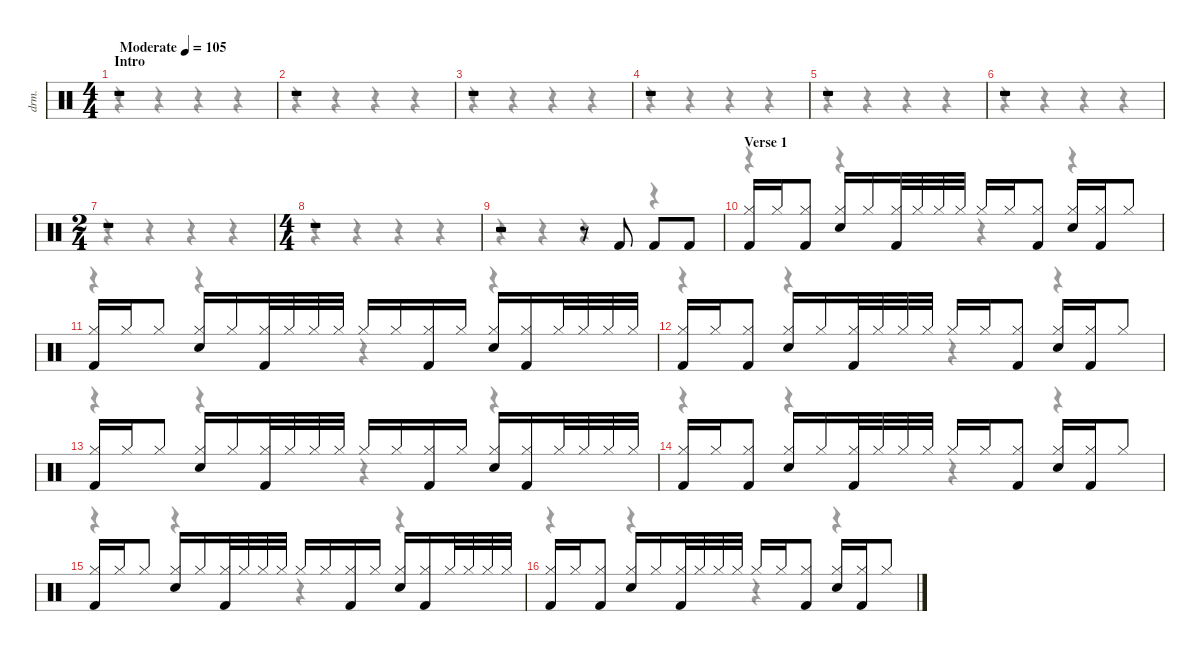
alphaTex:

\defaultSystemsLayout 4
\hideDynamics
\bracketExtendMode nobrackets
\otherSystemsTrackNameOrientation horizontal
\track ("Drums" "drm.") {instrument percussion}
\staff {score}
\articulation defaults
\voice
\ts (4 4)
\beaming (8 2 2 2 2)
\section ("" "Intro")
\tempo (105 "Moderate")
\clef neutral
\ks c
r.1{dy fff} |
r.1 |
r.1 |
r.1 |
r.1 |
r.1 |
\ts (2 4)
\beaming (8 2 2)
r.1 |
\ts (4 4)
\beaming (8 2 2 2 2)
r.1 |
r.2 r.8 "Kick (hit) 2".8 "Kick (hit) 2".8 "Kick (hit) 2".8 |
\section ("" "Verse 1")
("Hi-Hat (closed)" "Kick (hit) 2").16{dy mp} "Hi-Hat (closed)".16 ("Hi-Hat (closed)" "Kick (hit) 2").8 ("Hi-Hat (closed)" "Snare (hit) 2").16 "Hi-Hat (closed)".16 ("Hi-Hat (closed)" "Kick (hit) 2").32 "Hi-Hat (closed)".32 "Hi-Hat (closed)".32 "Hi-Hat (closed)".32 "Hi-Hat (closed)".16 "Hi-Hat (closed)".16 ("Hi-Hat (closed)" "Kick (hit) 2").8 ("Hi-Hat (closed)" "Snare (hit) 2").16 ("Hi-Hat (closed)" "Kick (hit) 2").16 "Hi-Hat (closed)".8 |
("Hi-Hat (closed)" "Kick (hit) 2").16 "Hi-Hat (closed)".16 "Hi-Hat (closed)".8 ("Hi-Hat (closed)" "Snare (hit) 2").16 "Hi-Hat (closed)".16 ("Hi-Hat (closed)" "Kick (hit) 2").32 "Hi-Hat (closed)".32 "Hi-Hat (closed)".32 "Hi-Hat (closed)".32 "Hi-Hat (closed)".16 "Hi-Hat (closed)".16 ("Hi-Hat (closed)" "Kick (hit) 2").16 "Hi-Hat (closed)".16 ("Hi-Hat (closed)" "Snare (hit) 2").16 ("Hi-Hat (closed)" "Kick (hit) 2").16 "Hi-Hat (closed)".32 "Hi-Hat (closed)".32 "Hi-Hat (closed)".32 "Hi-Hat (closed)".32 |
("Hi-Hat (closed)" "Kick (hit) 2").16 "Hi-Hat (closed)".16 ("Hi-Hat (closed)" "Kick (hit) 2").8 ("Hi-Hat (closed)" "Snare (hit) 2").16 "Hi-Hat (closed)".16 ("Hi-Hat (closed)" "Kick (hit) 2").32 "Hi-Hat (closed)".32 "Hi-Hat (closed)".32 "Hi-Hat (closed)".32 "Hi-Hat (closed)".16 "Hi-Hat (closed)".16 ("Hi-Hat (closed)" "Kick (hit) 2").8 ("Hi-Hat (closed)" "Snare (hit) 2").16 ("Hi-Hat (closed)" "Kick (hit) 2").16 "Hi-Hat (closed)".8 |
("Hi-Hat (closed)" "Kick (hit) 2").16 "Hi-Hat (closed)".16 "Hi-Hat (closed)".8 ("Hi-Hat (closed)" "Snare (hit) 2").16 "Hi-Hat (closed)".16 ("Hi-Hat (closed)" "Kick (hit) 2").32 "Hi-Hat (closed)".32 "Hi-Hat (closed)".32 "Hi-Hat (closed)".32 "Hi-Hat (closed)".16 "Hi-Hat (closed)".16 ("Hi-Hat (closed)" "Kick (hit) 2").16 "Hi-Hat (closed)".16 ("Hi-Hat (closed)" "Snare (hit) 2").16 ("Hi-Hat (closed)" "Kick (hit) 2").16 "Hi-Hat (closed)".32 "Hi-Hat (closed)".32 "Hi-Hat (closed)".32 "Hi-Hat (closed)".32 |
("Hi-Hat (closed)" "Kick (hit) 2").16 "Hi-Hat (closed)".16 ("Hi-Hat (closed)" "Kick (hit) 2").8 ("Hi-Hat (closed)" "Snare (hit) 2").16 "Hi-Hat (closed)".16 ("Hi-Hat (closed)" "Kick (hit) 2").32 "Hi-Hat (closed)".32 "Hi-Hat (closed)".32 "Hi-Hat (closed)".32 "Hi-Hat (closed)".16 "Hi-Hat (closed)".16 ("Hi-Hat (closed)" "Kick (hit) 2").8 ("Hi-Hat (closed)" "Snare (hit) 2").16 ("Hi-Hat (closed)" "Kick (hit) 2").16 "Hi-Hat (closed)".8 |
("Hi-Hat (closed)" "Kick (hit) 2").16 "Hi-Hat (closed)".16 "Hi-Hat (closed)".8 ("Hi-Hat (closed)" "Snare (hit) 2").16 "Hi-Hat (closed)".16 ("Hi-Hat (closed)" "Kick (hit) 2").32 "Hi-Hat (closed)".32 "Hi-Hat (closed)".32 "Hi-Hat (closed)".32 "Hi-Hat (closed)".16 "Hi-Hat (closed)".16 ("Hi-Hat (closed)" "Kick (hit) 2").16 "Hi-Hat (closed)".16 ("Hi-Hat (closed)" "Snare (hit) 2").16 ("Hi-Hat (closed)" "Kick (hit) 2").16 "Hi-Hat (closed)".32 "Hi-Hat (closed)".32 "Hi-Hat (closed)".32 "Hi-Hat (closed)".32 |
("Hi-Hat (closed)" "Kick (hit) 2").16 "Hi-Hat (closed)".16 ("Hi-Hat (closed)" "Kick (hit) 2").8 ("Hi-Hat (closed)" "Snare (hit) 2").16 "Hi-Hat (closed)".16 ("Hi-Hat (closed)" "Kick (hit) 2").32 "Hi-Hat (closed)".32 "Hi-Hat (closed)".32 "Hi-Hat (closed)".32 "Hi-Hat (closed)".16 "Hi-Hat (closed)".16 ("Hi-Hat (closed)" "Kick (hit) 2").8 ("Hi-Hat (closed)" "Snare (hit) 2").16 ("Hi-Hat (closed)" "Kick (hit) 2").16 "Hi-Hat (closed)".8
\voice
\clef neutral
\ottava regular
\simile none
\ks c
r.4{dy mf} r.4 r.4 r.4 |
r.4 r.4 r.4 r.4 |
r.4 r.4 r.4 r.4 |
r.4 r.4 r.4 r.4 |
r.4 r.4 r.4 r.4 |
r.4 r.4 r.4 r.4 |
r.4 r.4 r.4 r.4 |
r.4 r.4 r.4 r.4 |
r.4 r.4 r.4 r.4 |
r.4 r.4 r.4 r.4 |
r.4 r.4 r.4 r.4 |
r.4 r.4 r.4 r.4 |
r.4 r.4 r.4 r.4 |
r.4 r.4 r.4 r.4 |
r.4 r.4 r.4 r.4 |
r.4 r.4 r.4 r.4
